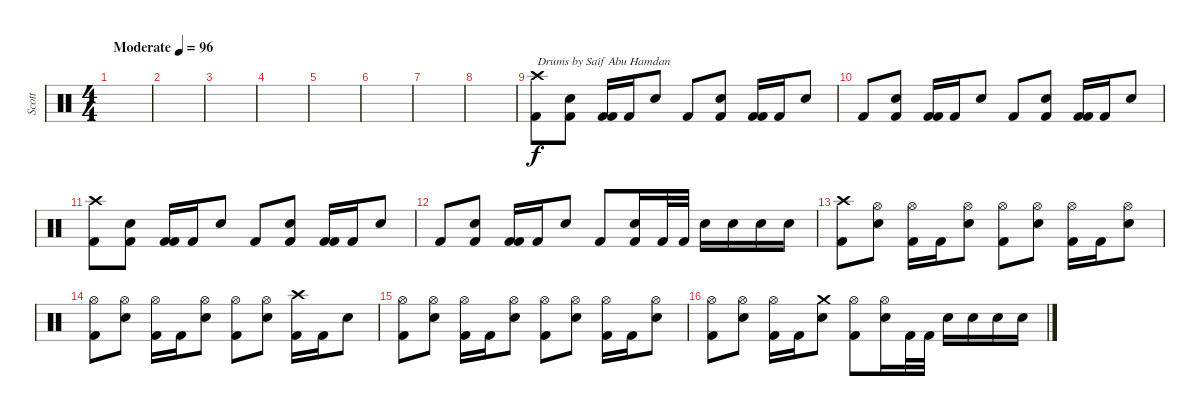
\track ("Scott" "Scott") {instrument percussion}
\staff {score}
\articulation defaults
\ts (4 4)
\tempo (96 "Moderate")
\clef neutral
\ks c
|
|
|
|
|
|
|
|
("Kick (hit) 2" "Crash high (hit)").8{txt "Drums by Saif Abu Hamdan"} ("Kick (hit) 2" "Snare (hit) 2").8 ("Kick (hit) 2" "Kick (hit) 2").16 "Kick (hit) 2".16 "Snare (hit) 2".8 "Kick (hit) 2".8 ("Kick (hit) 2" "Snare (hit) 2").8 ("Kick (hit) 2" "Kick (hit) 2").16 "Kick (hit) 2".16 "Snare (hit) 2".8 |
"Kick (hit) 2".8 ("Kick (hit) 2" "Snare (hit) 2").8 ("Kick (hit) 2" "Kick (hit) 2").16 "Kick (hit) 2".16 "Snare (hit) 2".8 "Kick (hit) 2".8 ("Kick (hit) 2" "Snare (hit) 2").8 ("Kick (hit) 2" "Kick (hit) 2").16 "Kick (hit) 2".16 "Snare (hit) 2".8 |
("Kick (hit) 2" "Crash high (hit)").8 ("Kick (hit) 2" "Snare (hit) 2").8 ("Kick (hit) 2" "Kick (hit) 2").16 "Kick (hit) 2".16 "Snare (hit) 2".8 "Kick (hit) 2".8 ("Kick (hit) 2" "Snare (hit) 2").8 ("Kick (hit) 2" "Kick (hit) 2").16 "Kick (hit) 2".16 "Snare (hit) 2".8 |
"Kick (hit) 2".8 ("Kick (hit) 2" "Snare (hit) 2").8 ("Kick (hit) 2" "Kick (hit) 2").16 "Kick (hit) 2".16 "Snare (hit) 2".8 "Kick (hit) 2".8 ("Kick (hit) 2" "Snare (hit) 2").16 "Kick (hit) 2".32 "Kick (hit) 2".32 "Snare (hit) 2".16 "Snare (hit) 2".16 "Snare (hit) 2".16 "Snare (hit) 2".16 |
("Kick (hit) 2" "Crash high (hit)").8 ("Hi-Hat (open)" "Snare (hit) 2").8 ("Hi-Hat (open)" "Kick (hit) 2").16 "Kick (hit) 2".16 ("Snare (hit) 2" "Hi-Hat (open)").8 ("Kick (hit) 2" "Hi-Hat (open)").8 ("Hi-Hat (open)" "Snare (hit) 2").8 ("Hi-Hat (open)" "Kick (hit) 2").16 "Kick (hit) 2".16 ("Snare (hit) 2" "Hi-Hat (open)").8 |
("Kick (hit) 2" "Hi-Hat (open)").8 ("Hi-Hat (open)" "Snare (hit) 2").8 ("Hi-Hat (open)" "Kick (hit) 2").16 "Kick (hit) 2".16 ("Snare (hit) 2" "Hi-Hat (open)").8 ("Kick (hit) 2" "Hi-Hat (open)").8 ("Hi-Hat (open)" "Snare (hit) 2").8 ("Kick (hit) 2" "Crash high (hit)").16 "Kick (hit) 2".16 "Snare (hit) 2".8 |
("Kick (hit) 2" "Hi-Hat (open)").8 ("Hi-Hat (open)" "Snare (hit) 2").8 ("Hi-Hat (open)" "Kick (hit) 2").16 "Kick (hit) 2".16 ("Snare (hit) 2" "Hi-Hat (open)").8 ("Kick (hit) 2" "Hi-Hat (open)").8 ("Hi-Hat (open)" "Snare (hit) 2").8 ("Hi-Hat (open)" "Kick (hit) 2").16 "Kick (hit) 2".16 ("Snare (hit) 2" "Hi-Hat (open)").8 |
("Kick (hit) 2" "Hi-Hat (open)").8 ("Hi-Hat (open)" "Snare (hit) 2").8 ("Hi-Hat (open)" "Kick (hit) 2").16 "Kick (hit) 2".16 ("Snare (hit) 2" "Crash medium (hit)").8 ("Kick (hit) 2" "Hi-Hat (open)").8 ("Hi-Hat (open)" "Snare (hit) 2").16 "Kick (hit) 2".32 "Kick (hit) 2".32 "Snare (hit) 2".16 "Snare (hit) 2".16 "Snare (hit) 2".16 "Snare (hit) 2".16
